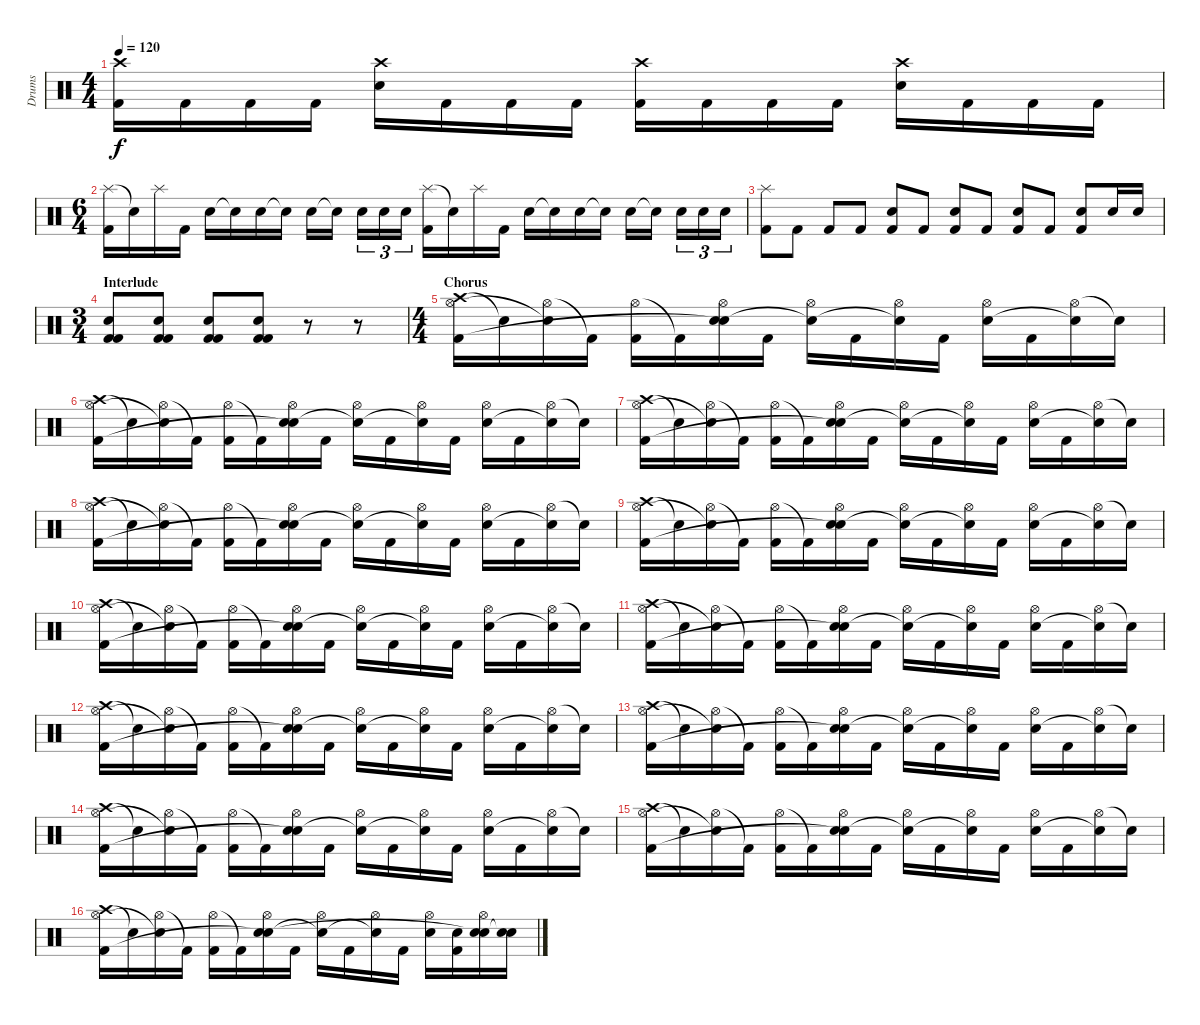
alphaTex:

\track ("Drums" "Drums") {instrument percussion}
\staff {score}
\articulation defaults
\ts (4 4)
\tempo 120
\clef neutral
\ks c
("Crash high (hit)" "Kick (hit) 2").16{dy f} "Kick (hit) 2".16 "Kick (hit) 2".16 "Kick (hit) 2".16 ("Crash high (hit)" "Electric Snare (hit)").16 "Kick (hit) 2".16 "Kick (hit) 2".16 "Kick (hit) 2".16 ("Crash high (hit)" "Kick (hit) 2").16 "Kick (hit) 2".16 "Kick (hit) 2".16 "Kick (hit) 2".16 ("Crash high (hit)" "Electric Snare (hit)").16 "Kick (hit) 2".16 "Kick (hit) 2".16 "Kick (hit) 2".16 |
\ts (6 4)
("Splash (hit)" "Kick (hit) 2").16 "Snare (hit)"{t}.16 "Splash (hit)".16 "Kick (hit) 2".16 "Electric Snare (hit)".16 "Snare (hit)"{t}.16 "Electric Snare (hit)".16 "Snare (hit)"{t}.16 "Electric Snare (hit)".16 "Snare (hit)"{t}.16 "Electric Snare (hit)".16{tu (3 2)} "Electric Snare (hit)".16{tu (3 2)} "Electric Snare (hit)".16{tu (3 2)} ("Splash (hit)" "Kick (hit) 2").16 "Snare (hit)"{t}.16 "Splash (hit)".16 "Kick (hit) 2".16 "Electric Snare (hit)".16 "Snare (hit)"{t}.16 "Electric Snare (hit)".16 "Snare (hit)"{t}.16 "Electric Snare (hit)".16 "Snare (hit)"{t}.16 "Electric Snare (hit)".16{tu (3 2)} "Electric Snare (hit)".16{tu (3 2)} "Electric Snare (hit)".16{tu (3 2)} |
("Splash (hit)" "Kick (hit) 2").8 "Kick (hit) 2".8 "Kick (hit) 2".8 "Kick (hit) 2".8 ("Electric Snare (hit)" "Kick (hit) 2").8 "Kick (hit) 2".8 ("Electric Snare (hit)" "Kick (hit) 2").8 "Kick (hit) 2".8 ("Electric Snare (hit)" "Kick (hit) 2").8 "Kick (hit) 2".8 ("Electric Snare (hit)" "Kick (hit) 2").8 "Electric Snare (hit)".16 "Electric Snare (hit)".16 |
\ts (3 4)
\section ("" "Interlude")
("Electric Snare (hit)" "Kick (hit) 2" "Kick (hit) 2").8 ("Electric Snare (hit)" "Kick (hit) 2" "Kick (hit) 2").8 ("Electric Snare (hit)" "Kick (hit) 2" "Kick (hit) 2").8 ("Electric Snare (hit)" "Kick (hit) 2" "Kick (hit) 2").8 r.8 r.8 |
\ts (4 4)
\section ("" "Chorus")
("Crash high (hit)" "Hi-Hat (open)" "Kick (hit) 2").16 "Snare (hit)"{t}.16 ("Hi-Hat (open)" "Snare (hit)"{t}).16 "Kick (hit) 2"{t}.16 ("Hi-Hat (open)" "Kick (hit) 2").16 "Kick (hit) 2"{t}.16 ("Hi-Hat (open)" "Electric Snare (hit)" "Snare (hit)"{t}).16 "Kick (hit) 2".16 ("Hi-Hat (open)" "Snare (hit)"{t}).16 "Kick (hit) 2".16 ("Hi-Hat (open)" "Snare (hit)"{t}).16 "Kick (hit) 2".16 ("Hi-Hat (open)" "Electric Snare (hit)").16 "Kick (hit) 2".16 ("Hi-Hat (open)" "Snare (hit)"{t}).16 "Snare (hit)"{t}.16 |
("Crash high (hit)" "Hi-Hat (open)" "Kick (hit) 2").16 "Snare (hit)"{t}.16 ("Hi-Hat (open)" "Snare (hit)"{t}).16 "Kick (hit) 2"{t}.16 ("Hi-Hat (open)" "Kick (hit) 2").16 "Kick (hit) 2"{t}.16 ("Hi-Hat (open)" "Electric Snare (hit)" "Snare (hit)"{t}).16 "Kick (hit) 2".16 ("Hi-Hat (open)" "Snare (hit)"{t}).16 "Kick (hit) 2".16 ("Hi-Hat (open)" "Snare (hit)"{t}).16 "Kick (hit) 2".16 ("Hi-Hat (open)" "Electric Snare (hit)").16 "Kick (hit) 2".16 ("Hi-Hat (open)" "Snare (hit)"{t}).16 "Snare (hit)"{t}.16 |
("Crash high (hit)" "Hi-Hat (open)" "Kick (hit) 2").16 "Snare (hit)"{t}.16 ("Hi-Hat (open)" "Snare (hit)"{t}).16 "Kick (hit) 2"{t}.16 ("Hi-Hat (open)" "Kick (hit) 2").16 "Kick (hit) 2"{t}.16 ("Hi-Hat (open)" "Electric Snare (hit)" "Snare (hit)"{t}).16 "Kick (hit) 2".16 ("Hi-Hat (open)" "Snare (hit)"{t}).16 "Kick (hit) 2".16 ("Hi-Hat (open)" "Snare (hit)"{t}).16 "Kick (hit) 2".16 ("Hi-Hat (open)" "Electric Snare (hit)").16 "Kick (hit) 2".16 ("Hi-Hat (open)" "Snare (hit)"{t}).16 "Snare (hit)"{t}.16 |
("Crash high (hit)" "Hi-Hat (open)" "Kick (hit) 2").16 "Snare (hit)"{t}.16 ("Hi-Hat (open)" "Snare (hit)"{t}).16 "Kick (hit) 2"{t}.16 ("Hi-Hat (open)" "Kick (hit) 2").16 "Kick (hit) 2"{t}.16 ("Hi-Hat (open)" "Electric Snare (hit)" "Snare (hit)"{t}).16 "Kick (hit) 2".16 ("Hi-Hat (open)" "Snare (hit)"{t}).16 "Kick (hit) 2".16 ("Hi-Hat (open)" "Snare (hit)"{t}).16 "Kick (hit) 2".16 ("Hi-Hat (open)" "Electric Snare (hit)").16 "Kick (hit) 2".16 ("Hi-Hat (open)" "Snare (hit)"{t}).16 "Snare (hit)"{t}.16 |
("Crash high (hit)" "Hi-Hat (open)" "Kick (hit) 2").16 "Snare (hit)"{t}.16 ("Hi-Hat (open)" "Snare (hit)"{t}).16 "Kick (hit) 2"{t}.16 ("Hi-Hat (open)" "Kick (hit) 2").16 "Kick (hit) 2"{t}.16 ("Hi-Hat (open)" "Electric Snare (hit)" "Snare (hit)"{t}).16 "Kick (hit) 2".16 ("Hi-Hat (open)" "Snare (hit)"{t}).16 "Kick (hit) 2".16 ("Hi-Hat (open)" "Snare (hit)"{t}).16 "Kick (hit) 2".16 ("Hi-Hat (open)" "Electric Snare (hit)").16 "Kick (hit) 2".16 ("Hi-Hat (open)" "Snare (hit)"{t}).16 "Snare (hit)"{t}.16 |
("Crash high (hit)" "Hi-Hat (open)" "Kick (hit) 2").16 "Snare (hit)"{t}.16 ("Hi-Hat (open)" "Snare (hit)"{t}).16 "Kick (hit) 2"{t}.16 ("Hi-Hat (open)" "Kick (hit) 2").16 "Kick (hit) 2"{t}.16 ("Hi-Hat (open)" "Electric Snare (hit)" "Snare (hit)"{t}).16 "Kick (hit) 2".16 ("Hi-Hat (open)" "Snare (hit)"{t}).16 "Kick (hit) 2".16 ("Hi-Hat (open)" "Snare (hit)"{t}).16 "Kick (hit) 2".16 ("Hi-Hat (open)" "Electric Snare (hit)").16 "Kick (hit) 2".16 ("Hi-Hat (open)" "Snare (hit)"{t}).16 "Snare (hit)"{t}.16 |
("Crash high (hit)" "Hi-Hat (open)" "Kick (hit) 2").16 "Snare (hit)"{t}.16 ("Hi-Hat (open)" "Snare (hit)"{t}).16 "Kick (hit) 2"{t}.16 ("Hi-Hat (open)" "Kick (hit) 2").16 "Kick (hit) 2"{t}.16 ("Hi-Hat (open)" "Electric Snare (hit)" "Snare (hit)"{t}).16 "Kick (hit) 2".16 ("Hi-Hat (open)" "Snare (hit)"{t}).16 "Kick (hit) 2".16 ("Hi-Hat (open)" "Snare (hit)"{t}).16 "Kick (hit) 2".16 ("Hi-Hat (open)" "Electric Snare (hit)").16 "Kick (hit) 2".16 ("Hi-Hat (open)" "Snare (hit)"{t}).16 "Snare (hit)"{t}.16 |
("Crash high (hit)" "Hi-Hat (open)" "Kick (hit) 2").16 "Snare (hit)"{t}.16 ("Hi-Hat (open)" "Snare (hit)"{t}).16 "Kick (hit) 2"{t}.16 ("Hi-Hat (open)" "Kick (hit) 2").16 "Kick (hit) 2"{t}.16 ("Hi-Hat (open)" "Electric Snare (hit)" "Snare (hit)"{t}).16 "Kick (hit) 2".16 ("Hi-Hat (open)" "Snare (hit)"{t}).16 "Kick (hit) 2".16 ("Hi-Hat (open)" "Snare (hit)"{t}).16 "Kick (hit) 2".16 ("Hi-Hat (open)" "Electric Snare (hit)").16 "Kick (hit) 2".16 ("Hi-Hat (open)" "Snare (hit)"{t}).16 "Snare (hit)"{t}.16 |
("Crash high (hit)" "Hi-Hat (open)" "Kick (hit) 2").16 "Snare (hit)"{t}.16 ("Hi-Hat (open)" "Snare (hit)"{t}).16 "Kick (hit) 2"{t}.16 ("Hi-Hat (open)" "Kick (hit) 2").16 "Kick (hit) 2"{t}.16 ("Hi-Hat (open)" "Electric Snare (hit)" "Snare (hit)"{t}).16 "Kick (hit) 2".16 ("Hi-Hat (open)" "Snare (hit)"{t}).16 "Kick (hit) 2".16 ("Hi-Hat (open)" "Snare (hit)"{t}).16 "Kick (hit) 2".16 ("Hi-Hat (open)" "Electric Snare (hit)").16 "Kick (hit) 2".16 ("Hi-Hat (open)" "Snare (hit)"{t}).16 "Snare (hit)"{t}.16 |
("Crash high (hit)" "Hi-Hat (open)" "Kick (hit) 2").16 "Snare (hit)"{t}.16 ("Hi-Hat (open)" "Snare (hit)"{t}).16 "Kick (hit) 2"{t}.16 ("Hi-Hat (open)" "Kick (hit) 2").16 "Kick (hit) 2"{t}.16 ("Hi-Hat (open)" "Electric Snare (hit)" "Snare (hit)"{t}).16 "Kick (hit) 2".16 ("Hi-Hat (open)" "Snare (hit)"{t}).16 "Kick (hit) 2".16 ("Hi-Hat (open)" "Snare (hit)"{t}).16 "Kick (hit) 2".16 ("Hi-Hat (open)" "Electric Snare (hit)").16 "Kick (hit) 2".16 ("Hi-Hat (open)" "Snare (hit)"{t}).16 "Snare (hit)"{t}.16 |
("Crash high (hit)" "Hi-Hat (open)" "Kick (hit) 2").16 "Snare (hit)"{t}.16 ("Hi-Hat (open)" "Snare (hit)"{t}).16 "Kick (hit) 2"{t}.16 ("Hi-Hat (open)" "Kick (hit) 2").16 "Kick (hit) 2"{t}.16 ("Hi-Hat (open)" "Electric Snare (hit)" "Snare (hit)"{t}).16 "Kick (hit) 2".16 ("Hi-Hat (open)" "Snare (hit)"{t}).16 "Kick (hit) 2".16 ("Hi-Hat (open)" "Snare (hit)"{t}).16 "Kick (hit) 2".16 ("Hi-Hat (open)" "Electric Snare (hit)").16 "Kick (hit) 2".16 ("Hi-Hat (open)" "Snare (hit)"{t}).16 "Snare (hit)"{t}.16 |
("Crash high (hit)" "Hi-Hat (open)" "Kick (hit) 2").16 "Snare (hit)"{t}.16 ("Hi-Hat (open)" "Snare (hit)"{t}).16 "Kick (hit) 2"{t}.16 ("Hi-Hat (open)" "Kick (hit) 2").16 "Kick (hit) 2"{t}.16 ("Hi-Hat (open)" "Electric Snare (hit)" "Snare (hit)"{t}).16 "Kick (hit) 2".16 ("Hi-Hat (open)" "Snare (hit)"{t}).16 "Kick (hit) 2".16 ("Hi-Hat (open)" "Snare (hit)"{t}).16 "Kick (hit) 2".16 ("Hi-Hat (open)" "Electric Snare (hit)").16 ("Electric Snare (hit)" "Kick (hit) 2").16 ("Hi-Hat (open)" "Electric Snare (hit)" "Snare (hit)"{t}).16 ("Electric Snare (hit)" "Snare (hit)"{t}).16
